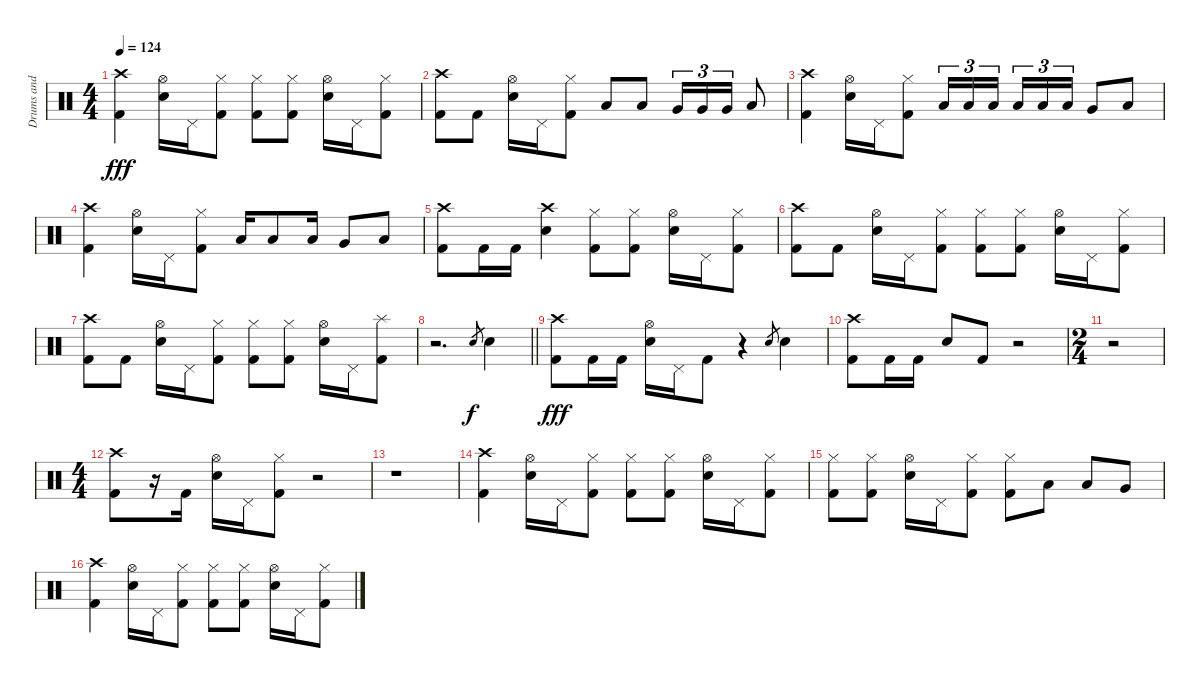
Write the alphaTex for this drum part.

\track ("Drums and percussion" "Drums and ") {instrument percussion}
\staff {score}
\articulation defaults
\ts (4 4)
\tempo 124
\clef neutral
\ks c
("Crash high (hit)" "Kick (hit) 2").4{dy fff} ("Hi-Hat (open)" "Electric Snare (hit)").16 "Pedal Hi-Hat (hit)".16 ("Hi-Hat (closed)" "Kick (hit) 2").8 ("Hi-Hat (closed)" "Kick (hit) 2").8 ("Hi-Hat (closed)" "Kick (hit) 2").8 ("Hi-Hat (open)" "Electric Snare (hit)").16 "Pedal Hi-Hat (hit)".16 ("Hi-Hat (closed)" "Kick (hit) 2").8 |
("Crash high (hit)" "Kick (hit) 2").8 "Kick (hit) 2".8 ("Hi-Hat (open)" "Electric Snare (hit)").16 "Pedal Hi-Hat (hit)".16 ("Hi-Hat (closed)" "Kick (hit) 2").8 "Low Tom (hit)".8 "Low Tom (hit)".8 "Very Low Tom (hit)".16{tu (3 2)} "Very Low Tom (hit)".16{tu (3 2)} "Very Low Tom (hit)".16{tu (3 2)} "Low Floor Tom (hit)".8 |
("Crash high (hit)" "Kick (hit) 2").4 ("Hi-Hat (open)" "Electric Snare (hit)").16 "Pedal Hi-Hat (hit)".16 ("Hi-Hat (closed)" "Kick (hit) 2").8 "Low Tom (hit)".16{tu (3 2)} "Low Tom (hit)".16{tu (3 2)} "Low Tom (hit)".16{tu (3 2)} "Low Tom (hit)".16{tu (3 2)} "Low Tom (hit)".16{tu (3 2)} "Low Tom (hit)".16{tu (3 2)} "Very Low Tom (hit)".8 "Low Floor Tom (hit)".8 |
("Crash high (hit)" "Kick (hit) 2").4 ("Hi-Hat (open)" "Electric Snare (hit)").16 "Pedal Hi-Hat (hit)".16 ("Hi-Hat (closed)" "Kick (hit) 2").8 "Low Tom (hit)".16 "Low Tom (hit)".8 "Low Tom (hit)".16 "Very Low Tom (hit)".8 "Low Floor Tom (hit)".8 |
("Crash high (hit)" "Kick (hit) 2").8 "Kick (hit) 2".16 "Kick (hit) 2".16 ("Crash high (hit)" "Electric Snare (hit)").4 ("Hi-Hat (closed)" "Kick (hit) 2").8 ("Hi-Hat (closed)" "Kick (hit) 2").8 ("Hi-Hat (open)" "Electric Snare (hit)").16 "Pedal Hi-Hat (hit)".16 ("Hi-Hat (closed)" "Kick (hit) 2").8 |
("Crash high (hit)" "Kick (hit) 2").8 "Kick (hit) 2".8 ("Hi-Hat (open)" "Electric Snare (hit)").16 "Pedal Hi-Hat (hit)".16 ("Hi-Hat (closed)" "Kick (hit) 2").8 ("Hi-Hat (closed)" "Kick (hit) 2").8 ("Hi-Hat (closed)" "Kick (hit) 2").8 ("Hi-Hat (open)" "Electric Snare (hit)").16 "Pedal Hi-Hat (hit)".16 ("Hi-Hat (closed)" "Kick (hit) 2").8 |
("Crash high (hit)" "Kick (hit) 2").8 "Kick (hit) 2".8 ("Hi-Hat (open)" "Electric Snare (hit)").16 "Pedal Hi-Hat (hit)".16 ("Hi-Hat (closed)" "Kick (hit) 2").8 ("Hi-Hat (closed)" "Kick (hit) 2").8 ("Hi-Hat (closed)" "Kick (hit) 2").8 ("Hi-Hat (open)" "Electric Snare (hit)").16 "Pedal Hi-Hat (hit)".16 ("Splash (hit)" "Kick (hit) 2").8 |
\barLineRight lightlight
r.2{d} "Snare (hit) 2".8{gr dy f} "Electric Snare (hit)".4 |
("Crash high (hit)" "Kick (hit) 2").8{dy fff} "Kick (hit) 2".16 "Kick (hit) 2".16 ("Hi-Hat (open)" "Electric Snare (hit)").16 "Pedal Hi-Hat (hit)".16 "Kick (hit) 2".8 r.4 "Electric Snare (hit)".8{gr} "Electric Snare (hit)".4 |
("Crash high (hit)" "Kick (hit) 2").8 "Kick (hit) 2".16 "Kick (hit) 2".16 "Electric Snare (hit)".8 "Kick (hit) 2".8 r.2 |
\ts (2 4)
r.2 |
\ts (4 4)
("Crash high (hit)" "Kick (hit) 2").8 r.16 "Kick (hit) 2".16 ("Hi-Hat (open)" "Electric Snare (hit)").16 "Pedal Hi-Hat (hit)".16 ("Hi-Hat (closed)" "Kick (hit) 2").8 r.2 |
r.1 |
("Crash high (hit)" "Kick (hit) 2").4 ("Hi-Hat (open)" "Snare (hit) 2").16 "Pedal Hi-Hat (hit)".16 ("Hi-Hat (closed)" "Kick (hit) 2").8 ("Hi-Hat (closed)" "Kick (hit) 2").8 ("Hi-Hat (closed)" "Kick (hit) 2").8 ("Hi-Hat (open)" "Snare (hit) 2").16 "Pedal Hi-Hat (hit)".16 ("Hi-Hat (closed)" "Kick (hit) 2").8 |
("Hi-Hat (closed)" "Kick (hit) 2").8 ("Hi-Hat (closed)" "Kick (hit) 2").8 ("Hi-Hat (open)" "Snare (hit) 2").16 "Pedal Hi-Hat (hit)".16 ("Hi-Hat (closed)" "Kick (hit) 2").8 ("Hi-Hat (closed)" "Kick (hit) 2").8 "Low Tom (hit)".8 "Low Tom (hit)".8 "Very Low Tom (hit)".8 |
("Crash high (hit)" "Kick (hit) 2").4 ("Hi-Hat (open)" "Snare (hit) 2").16 "Pedal Hi-Hat (hit)".16 ("Hi-Hat (closed)" "Kick (hit) 2").8 ("Hi-Hat (closed)" "Kick (hit) 2").8 ("Hi-Hat (closed)" "Kick (hit) 2").8 ("Hi-Hat (open)" "Snare (hit) 2").16 "Pedal Hi-Hat (hit)".16 ("Hi-Hat (closed)" "Kick (hit) 2").8
